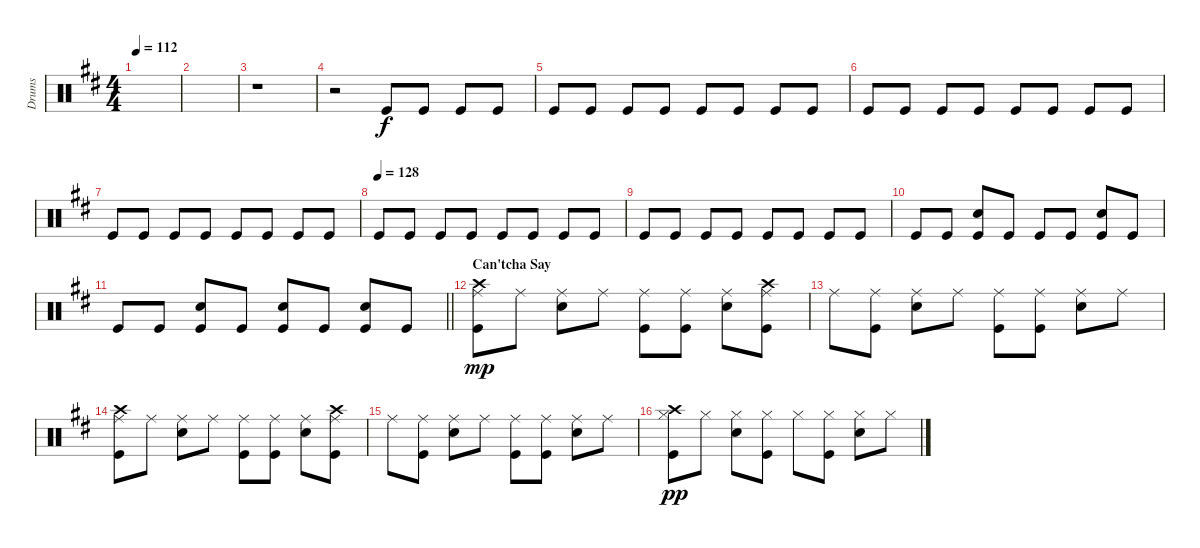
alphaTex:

\track ("Drums" "Drums") {instrument percussion}
\staff {score}
\articulation defaults
\ts (4 4)
\tempo 112
\clef neutral
\ks d
|
|
r.1{volume 0} |
r.2 "Kick (hit)".8{dy f volume 4} "Kick (hit)".8 "Kick (hit)".8 "Kick (hit)".8 |
"Kick (hit)".8 "Kick (hit)".8 "Kick (hit)".8 "Kick (hit)".8 "Kick (hit)".8 "Kick (hit)".8 "Kick (hit)".8 "Kick (hit)".8 |
"Kick (hit)".8 "Kick (hit)".8 "Kick (hit)".8 "Kick (hit)".8 "Kick (hit)".8 "Kick (hit)".8 "Kick (hit)".8 "Kick (hit)".8 |
"Kick (hit)".8 "Kick (hit)".8 "Kick (hit)".8 "Kick (hit)".8 "Kick (hit)".8 "Kick (hit)".8 "Kick (hit)".8 "Kick (hit)".8 |
\tempo (128)
"Kick (hit)".8 "Kick (hit)".8 "Kick (hit)".8 "Kick (hit)".8 "Kick (hit)".8 "Kick (hit)".8 "Kick (hit)".8 "Kick (hit)".8 |
"Kick (hit)".8 "Kick (hit)".8 "Kick (hit)".8 "Kick (hit)".8 "Kick (hit)".8 "Kick (hit)".8 "Kick (hit)".8 "Kick (hit)".8 |
"Kick (hit)".8{volume 11} "Kick (hit)".8 ("Electric Snare (hit)" "Kick (hit)").8 "Kick (hit)".8 "Kick (hit)".8 "Kick (hit)".8 ("Electric Snare (hit)" "Kick (hit)").8 "Kick (hit)".8 |
\barLineRight lightlight "Kick (hit)".8 "Kick (hit)".8
("Electric Snare (hit)" "Kick (hit)").8 "Kick (hit)".8 ("Electric Snare (hit)" "Kick (hit)").8 "Kick (hit)".8 ("Electric Snare (hit)" "Kick (hit)").8 "Kick (hit)".8 |
\section ("" "Can'tcha Say")
("Crash high (hit)" "Ride (middle)" "Kick (hit)").8{dy mp} "Ride (middle)".8 ("Ride (middle)" "Electric Snare (hit)").8 "Ride (middle)".8 ("Ride (middle)" "Kick (hit)").8 ("Ride (middle)" "Kick (hit)").8 ("Ride (middle)" "Electric Snare (hit)").8 ("Crash high (hit)" "Ride (middle)" "Kick (hit)").8 |
"Ride (middle)".8 ("Ride (middle)" "Kick (hit)").8 ("Ride (middle)" "Electric Snare (hit)").8 "Ride (middle)".8 ("Ride (middle)" "Kick (hit)").8 ("Ride (middle)" "Kick (hit)").8 ("Ride (middle)" "Electric Snare (hit)").8 "Ride (middle)".8 |
("Crash high (hit)" "Ride (middle)" "Kick (hit)").8 "Ride (middle)".8 ("Ride (middle)" "Electric Snare (hit)").8 "Ride (middle)".8 ("Ride (middle)" "Kick (hit)").8 ("Ride (middle)" "Kick (hit)").8 ("Ride (middle)" "Electric Snare (hit)").8 ("Crash high (hit)" "Ride (middle)" "Kick (hit)").8 |
"Ride (middle)".8 ("Ride (middle)" "Kick (hit)").8 ("Ride (middle)" "Electric Snare (hit)").8 "Ride (middle)".8 ("Ride (middle)" "Kick (hit)").8 ("Ride (middle)" "Kick (hit)").8 ("Ride (middle)" "Electric Snare (hit)").8 "Ride (middle)".8 |
("Crash high (hit)" "Hi-Hat (closed)" "Kick (hit)").8{dy pp} "Hi-Hat (closed)".8 ("Hi-Hat (closed)" "Electric Snare (hit)").8 ("Hi-Hat (closed)" "Kick (hit)").8 "Hi-Hat (closed)".8 ("Hi-Hat (closed)" "Kick (hit)").8 ("Hi-Hat (closed)" "Electric Snare (hit)").8 "Hi-Hat (closed)".8
